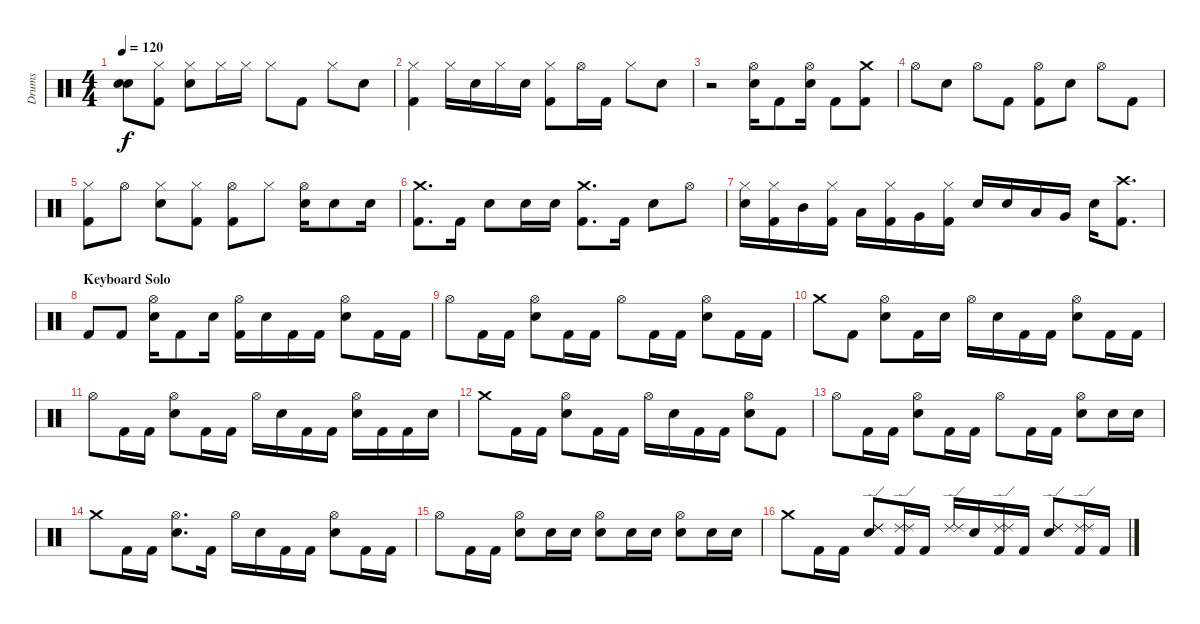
\track ("Drums" "Drums") {instrument percussion}
\staff {score}
\articulation defaults
\ts (4 4)
\tempo 120
\clef neutral
\ks c
("Snare (hit)"{t} "Snare (hit)"{t}).8{dy f} ("Hi-Hat (closed)" "Kick (hit) 2").8 ("Electric Snare (hit)" "Hi-Hat (closed)").8 "Hi-Hat (closed)".16 "Hi-Hat (closed)".16 "Hi-Hat (closed)".8 "Kick (hit) 2".8 "Hi-Hat (closed)".8 "Electric Snare (hit)".8 |
("Kick (hit) 2" "Hi-Hat (closed)").4 "Hi-Hat (closed)".16 "Electric Snare (hit)".16 "Hi-Hat (closed)".16 "Electric Snare (hit)".16 ("Hi-Hat (closed)" "Kick (hit) 2").8 "Hi-Hat (open)".16 "Kick (hit) 2".16 "Hi-Hat (closed)".8 "Electric Snare (hit)".8 |
r.2 ("Electric Snare (hit)" "Hi-Hat (open)").16 "Kick (hit) 2".8 ("Electric Snare (hit)" "Hi-Hat (open)").16 "Kick (hit) 2".8 ("Crash medium (hit)" "Kick (hit) 2").8 |
"Hi-Hat (open)".8 "Electric Snare (hit)".8 "Hi-Hat (open)".8 "Kick (hit) 2".8 ("Hi-Hat (open)" "Kick (hit) 2").8 "Electric Snare (hit)".8 "Hi-Hat (open)".8 "Kick (hit) 2".8 |
("Kick (hit) 2" "Hi-Hat (closed)").8 "Hi-Hat (open)".8 ("Electric Snare (hit)" "Hi-Hat (closed)").8 ("Kick (hit) 2" "Hi-Hat (closed)").8 ("Kick (hit) 2" "Hi-Hat (open)").8 "Hi-Hat (closed)".8 ("Electric Snare (hit)" "Hi-Hat (open)").16 "Electric Snare (hit)".8 "Electric Snare (hit)".16 |
("Crash medium (hit)" "Kick (hit) 2").8{d} "Kick (hit) 2".16 "Electric Snare (hit)".8 "Electric Snare (hit)".16 "Electric Snare (hit)".16 ("Crash medium (hit)" "Kick (hit) 2").8{d} "Kick (hit) 2".16 "Electric Snare (hit)".8 "Hi-Hat (open)".8 |
("Hi-Hat (closed)" "Electric Snare (hit)").16 ("Hi-Hat (closed)" "Kick (hit) 2").16 "Mid Tom (hit)".16 ("Hi-Hat (closed)" "Kick (hit) 2").16 "Low Tom (hit)".16 ("Hi-Hat (closed)" "Kick (hit) 2").16 "Very Low Tom (hit)".16 ("Hi-Hat (closed)" "Kick (hit) 2").16 "Electric Snare (hit)".16 "Electric Snare (hit)".16 "Low Tom (hit)".16 "Very Low Tom (hit)".16 "Electric Snare (hit)".16 ("Crash high (hit)" "Kick (hit) 2").8{d} |
\section ("" "Keyboard Solo")
"Kick (hit) 2".8 "Kick (hit) 2".8 ("Hi-Hat (open)" "Electric Snare (hit)").16 "Kick (hit) 2".8 "Electric Snare (hit)".16 ("Hi-Hat (open)" "Kick (hit) 2").16 "Electric Snare (hit)".16 "Kick (hit) 2".16 "Kick (hit) 2".16 ("Hi-Hat (open)" "Electric Snare (hit)").8 "Kick (hit) 2".16 "Kick (hit) 2".16 |
"Hi-Hat (open)".8 "Kick (hit) 2".16 "Kick (hit) 2".16 ("Hi-Hat (open)" "Electric Snare (hit)").8 "Kick (hit) 2".16 "Kick (hit) 2".16 "Hi-Hat (open)".8 "Kick (hit) 2".16 "Kick (hit) 2".16 ("Hi-Hat (open)" "Electric Snare (hit)").8 "Kick (hit) 2".16 "Kick (hit) 2".16 |
"Crash medium (hit)".8 "Kick (hit) 2".8 ("Hi-Hat (open)" "Electric Snare (hit)").8 "Kick (hit) 2".16 "Electric Snare (hit)".16 "Hi-Hat (open)".16 "Electric Snare (hit)".16 "Kick (hit) 2".16 "Kick (hit) 2".16 ("Hi-Hat (open)" "Electric Snare (hit)").8 "Kick (hit) 2".16 "Kick (hit) 2".16 |
"Hi-Hat (open)".8 "Kick (hit) 2".16 "Kick (hit) 2".16 ("Hi-Hat (open)" "Electric Snare (hit)").8 "Kick (hit) 2".16 "Kick (hit) 2".16 "Hi-Hat (open)".16 "Electric Snare (hit)".16 "Kick (hit) 2".16 "Kick (hit) 2".16 ("Hi-Hat (open)" "Electric Snare (hit)").16 "Kick (hit) 2".16 "Kick (hit) 2".16 "Electric Snare (hit)".16 |
"Crash medium (hit)".8 "Kick (hit) 2".16 "Kick (hit) 2".16 ("Hi-Hat (open)" "Electric Snare (hit)").8 "Kick (hit) 2".16 "Kick (hit) 2".16 "Hi-Hat (open)".16 "Electric Snare (hit)".16 "Kick (hit) 2".16 "Kick (hit) 2".16 ("Hi-Hat (open)" "Electric Snare (hit)").8 "Kick (hit) 2".8 |
"Hi-Hat (open)".8 "Kick (hit) 2".16 "Kick (hit) 2".16 ("Hi-Hat (open)" "Electric Snare (hit)").8 "Kick (hit) 2".16 "Kick (hit) 2".16 "Hi-Hat (open)".8 "Kick (hit) 2".16 "Kick (hit) 2".16 ("Hi-Hat (open)" "Electric Snare (hit)").8 "Electric Snare (hit)".16 "Electric Snare (hit)".16 |
"Crash medium (hit)".8 "Kick (hit) 2".16 "Kick (hit) 2".16 ("Hi-Hat (open)" "Electric Snare (hit)").8{d} "Kick (hit) 2".16 "Hi-Hat (open)".16 "Electric Snare (hit)".16 "Kick (hit) 2".16 "Kick (hit) 2".16 ("Hi-Hat (open)" "Electric Snare (hit)").8 "Kick (hit) 2".16 "Kick (hit) 2".16 |
"Hi-Hat (open)".8 "Kick (hit) 2".16 "Kick (hit) 2".16 ("Hi-Hat (open)" "Electric Snare (hit)").8 "Electric Snare (hit)".16 "Electric Snare (hit)".16 ("Hi-Hat (open)" "Electric Snare (hit)").8 "Electric Snare (hit)".16 "Electric Snare (hit)".16 ("Hi-Hat (open)" "Electric Snare (hit)").8 "Electric Snare (hit)".16 "Electric Snare (hit)".16 |
"Crash medium (hit)".8 "Kick (hit) 2".16 "Kick (hit) 2".16 ("Ride (edge) 2" "Ride (edge) 2" "Electric Snare (hit)").8 ("Ride (edge) 2" "Ride (edge) 2" "Kick (hit) 2").16 "Kick (hit) 2".16 ("Ride (edge) 2" "Ride (edge) 2").16 "Electric Snare (hit)".16 ("Ride (edge) 2" "Ride (edge) 2" "Kick (hit) 2").16 "Kick (hit) 2".16 ("Ride (edge) 2" "Ride (edge) 2" "Electric Snare (hit)").8 ("Ride (edge) 2" "Ride (edge) 2" "Kick (hit) 2").16 "Kick (hit) 2".16
